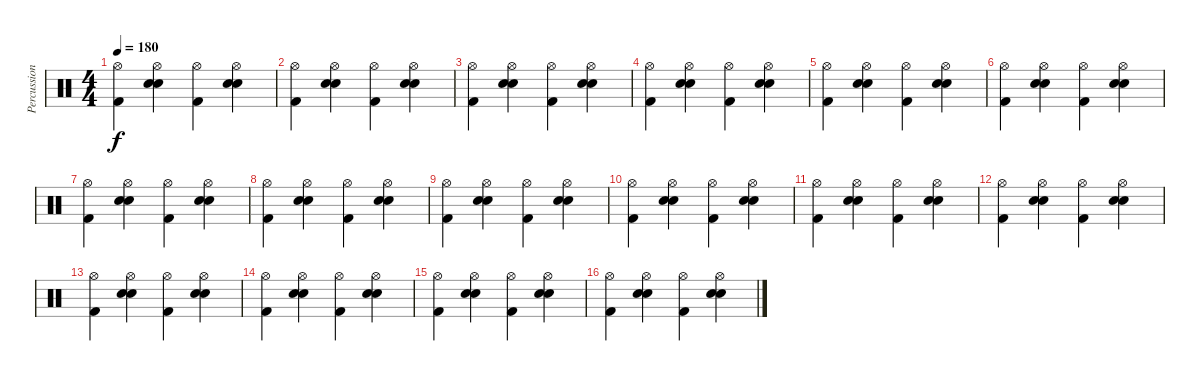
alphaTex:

\track ("Percussion" "Percussion") {instrument percussion}
\staff {score}
\articulation defaults
\ts (4 4)
\tempo 180
\clef neutral
\ks c
("Hi-Hat (open)" "Kick (hit) 2").4{dy f} ("Hi-Hat (open)" "Snare (hit) 2" "Snare (hit) 2").4 ("Hi-Hat (open)" "Kick (hit) 2").4 ("Hi-Hat (open)" "Snare (hit) 2" "Snare (hit) 2").4 |
("Hi-Hat (open)" "Kick (hit) 2").4 ("Hi-Hat (open)" "Snare (hit) 2" "Snare (hit) 2").4 ("Hi-Hat (open)" "Kick (hit) 2").4 ("Hi-Hat (open)" "Snare (hit) 2" "Snare (hit) 2").4 |
("Hi-Hat (open)" "Kick (hit) 2").4 ("Hi-Hat (open)" "Snare (hit) 2" "Snare (hit) 2").4 ("Hi-Hat (open)" "Kick (hit) 2").4 ("Hi-Hat (open)" "Snare (hit) 2" "Snare (hit) 2").4 |
("Hi-Hat (open)" "Kick (hit) 2").4 ("Hi-Hat (open)" "Snare (hit) 2" "Snare (hit) 2").4 ("Hi-Hat (open)" "Kick (hit) 2").4 ("Hi-Hat (open)" "Snare (hit) 2" "Snare (hit) 2").4 |
("Hi-Hat (open)" "Kick (hit) 2").4 ("Hi-Hat (open)" "Snare (hit) 2" "Snare (hit) 2").4 ("Hi-Hat (open)" "Kick (hit) 2").4 ("Hi-Hat (open)" "Snare (hit) 2" "Snare (hit) 2").4 |
("Hi-Hat (open)" "Kick (hit) 2").4 ("Hi-Hat (open)" "Snare (hit) 2" "Snare (hit) 2").4 ("Hi-Hat (open)" "Kick (hit) 2").4 ("Hi-Hat (open)" "Snare (hit) 2" "Snare (hit) 2").4 |
("Hi-Hat (open)" "Kick (hit) 2").4 ("Hi-Hat (open)" "Snare (hit) 2" "Snare (hit) 2").4 ("Hi-Hat (open)" "Kick (hit) 2").4 ("Hi-Hat (open)" "Snare (hit) 2" "Snare (hit) 2").4 |
("Hi-Hat (open)" "Kick (hit) 2").4 ("Hi-Hat (open)" "Snare (hit) 2" "Snare (hit) 2").4 ("Hi-Hat (open)" "Kick (hit) 2").4 ("Hi-Hat (open)" "Snare (hit) 2" "Snare (hit) 2").4 |
("Hi-Hat (open)" "Kick (hit) 2").4 ("Hi-Hat (open)" "Snare (hit) 2" "Snare (hit) 2").4 ("Hi-Hat (open)" "Kick (hit) 2").4 ("Hi-Hat (open)" "Snare (hit) 2" "Snare (hit) 2").4 |
("Hi-Hat (open)" "Kick (hit) 2").4 ("Hi-Hat (open)" "Snare (hit) 2" "Snare (hit) 2").4 ("Hi-Hat (open)" "Kick (hit) 2").4 ("Hi-Hat (open)" "Snare (hit) 2" "Snare (hit) 2").4 |
("Hi-Hat (open)" "Kick (hit) 2").4 ("Hi-Hat (open)" "Snare (hit) 2" "Snare (hit) 2").4 ("Hi-Hat (open)" "Kick (hit) 2").4 ("Hi-Hat (open)" "Snare (hit) 2" "Snare (hit) 2").4 |
("Hi-Hat (open)" "Kick (hit) 2").4 ("Hi-Hat (open)" "Snare (hit) 2" "Snare (hit) 2").4 ("Hi-Hat (open)" "Kick (hit) 2").4 ("Hi-Hat (open)" "Snare (hit) 2" "Snare (hit) 2").4 |
("Hi-Hat (open)" "Kick (hit) 2").4 ("Hi-Hat (open)" "Snare (hit) 2" "Snare (hit) 2").4 ("Hi-Hat (open)" "Kick (hit) 2").4 ("Hi-Hat (open)" "Snare (hit) 2" "Snare (hit) 2").4 |
("Hi-Hat (open)" "Kick (hit) 2").4 ("Hi-Hat (open)" "Snare (hit) 2" "Snare (hit) 2").4 ("Hi-Hat (open)" "Kick (hit) 2").4 ("Hi-Hat (open)" "Snare (hit) 2" "Snare (hit) 2").4 |
("Hi-Hat (open)" "Kick (hit) 2").4 ("Hi-Hat (open)" "Snare (hit) 2" "Snare (hit) 2").4 ("Hi-Hat (open)" "Kick (hit) 2").4 ("Hi-Hat (open)" "Snare (hit) 2" "Snare (hit) 2").4 |
("Hi-Hat (open)" "Kick (hit) 2").4 ("Hi-Hat (open)" "Snare (hit) 2" "Snare (hit) 2").4 ("Hi-Hat (open)" "Kick (hit) 2").4 ("Hi-Hat (open)" "Snare (hit) 2" "Snare (hit) 2").4
